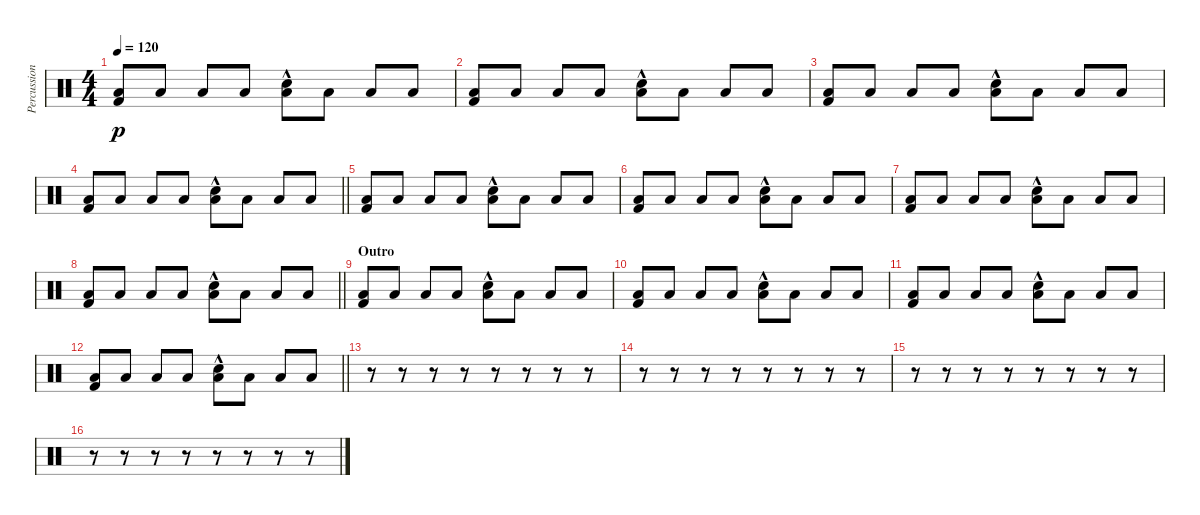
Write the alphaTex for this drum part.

\track ("Percussion" "Percussion") {instrument percussion}
\staff {score}
\articulation defaults
\ts (4 4)
\tempo 120
\clef neutral
\ks c
("Kick (hit) 2" "Low Floor Tom (hit)").8{dy p} "Low Floor Tom (hit)".8 "Low Floor Tom (hit)".8 "Low Floor Tom (hit)".8 ("Snare (hit) 2"{hac} "Low Floor Tom (hit)").8 "Low Floor Tom (hit)".8 "Low Floor Tom (hit)".8 "Low Floor Tom (hit)".8 |
("Kick (hit) 2" "Low Floor Tom (hit)").8 "Low Floor Tom (hit)".8 "Low Floor Tom (hit)".8 "Low Floor Tom (hit)".8 ("Snare (hit) 2"{hac} "Low Floor Tom (hit)").8 "Low Floor Tom (hit)".8 "Low Floor Tom (hit)".8 "Low Floor Tom (hit)".8 |
("Kick (hit) 2" "Low Floor Tom (hit)").8 "Low Floor Tom (hit)".8 "Low Floor Tom (hit)".8 "Low Floor Tom (hit)".8 ("Snare (hit) 2"{hac} "Low Floor Tom (hit)").8 "Low Floor Tom (hit)".8 "Low Floor Tom (hit)".8 "Low Floor Tom (hit)".8 |
\barLineRight lightlight
("Kick (hit) 2" "Low Floor Tom (hit)").8 "Low Floor Tom (hit)".8 "Low Floor Tom (hit)".8 "Low Floor Tom (hit)".8 ("Snare (hit) 2"{hac} "Low Floor Tom (hit)").8 "Low Floor Tom (hit)".8 "Low Floor Tom (hit)".8 "Low Floor Tom (hit)".8 |
("Kick (hit) 2" "Low Floor Tom (hit)").8 "Low Floor Tom (hit)".8 "Low Floor Tom (hit)".8 "Low Floor Tom (hit)".8 ("Snare (hit) 2"{hac} "Low Floor Tom (hit)").8 "Low Floor Tom (hit)".8 "Low Floor Tom (hit)".8 "Low Floor Tom (hit)".8 |
("Kick (hit) 2" "Low Floor Tom (hit)").8 "Low Floor Tom (hit)".8 "Low Floor Tom (hit)".8 "Low Floor Tom (hit)".8 ("Snare (hit) 2"{hac} "Low Floor Tom (hit)").8 "Low Floor Tom (hit)".8 "Low Floor Tom (hit)".8 "Low Floor Tom (hit)".8 |
("Kick (hit) 2" "Low Floor Tom (hit)").8 "Low Floor Tom (hit)".8 "Low Floor Tom (hit)".8 "Low Floor Tom (hit)".8 ("Snare (hit) 2"{hac} "Low Floor Tom (hit)").8 "Low Floor Tom (hit)".8 "Low Floor Tom (hit)".8 "Low Floor Tom (hit)".8 |
\barLineRight lightlight
("Kick (hit) 2" "Low Floor Tom (hit)").8 "Low Floor Tom (hit)".8 "Low Floor Tom (hit)".8 "Low Floor Tom (hit)".8 ("Snare (hit) 2"{hac} "Low Floor Tom (hit)").8 "Low Floor Tom (hit)".8 "Low Floor Tom (hit)".8 "Low Floor Tom (hit)".8 |
\section ("" "Outro")
("Kick (hit) 2" "Low Floor Tom (hit)").8 "Low Floor Tom (hit)".8 "Low Floor Tom (hit)".8 "Low Floor Tom (hit)".8 ("Snare (hit) 2"{hac} "Low Floor Tom (hit)").8 "Low Floor Tom (hit)".8 "Low Floor Tom (hit)".8 "Low Floor Tom (hit)".8 |
("Kick (hit) 2" "Low Floor Tom (hit)").8 "Low Floor Tom (hit)".8 "Low Floor Tom (hit)".8 "Low Floor Tom (hit)".8 ("Snare (hit) 2"{hac} "Low Floor Tom (hit)").8 "Low Floor Tom (hit)".8 "Low Floor Tom (hit)".8 "Low Floor Tom (hit)".8 |
("Kick (hit) 2" "Low Floor Tom (hit)").8 "Low Floor Tom (hit)".8 "Low Floor Tom (hit)".8 "Low Floor Tom (hit)".8 ("Snare (hit) 2"{hac} "Low Floor Tom (hit)").8 "Low Floor Tom (hit)".8 "Low Floor Tom (hit)".8 "Low Floor Tom (hit)".8 |
\barLineRight lightlight
("Kick (hit) 2" "Low Floor Tom (hit)").8 "Low Floor Tom (hit)".8 "Low Floor Tom (hit)".8 "Low Floor Tom (hit)".8 ("Snare (hit) 2"{hac} "Low Floor Tom (hit)").8 "Low Floor Tom (hit)".8 "Low Floor Tom (hit)".8 "Low Floor Tom (hit)".8 |
r.8 r.8 r.8 r.8 r.8 r.8 r.8 r.8 |
r.8 r.8 r.8 r.8 r.8 r.8 r.8 r.8 |
r.8 r.8 r.8 r.8 r.8 r.8 r.8 r.8 |
r.8 r.8 r.8 r.8 r.8 r.8 r.8 r.8
